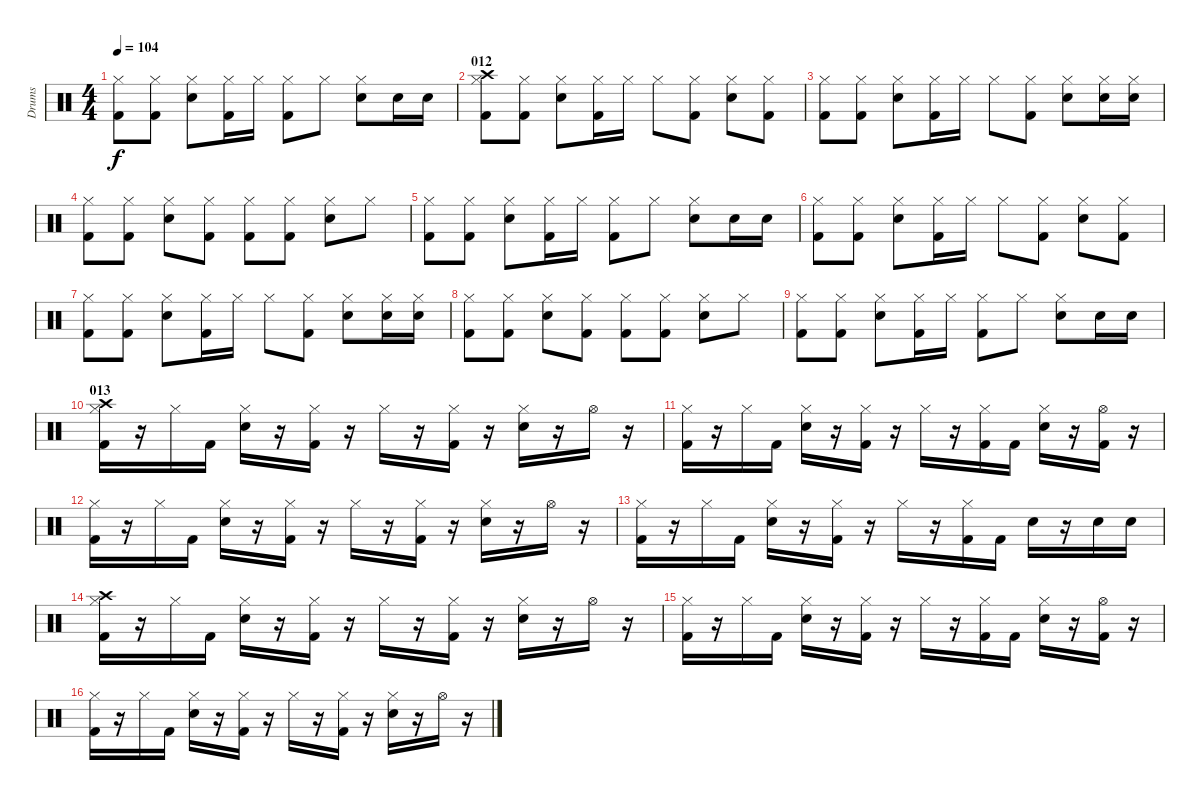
\track ("Drums" "Drums") {instrument percussion}
\staff {score}
\articulation defaults
\ts (4 4)
\tempo 104
\clef neutral
\ks c
("Hi-Hat (closed)" "Kick (hit) 2").8{dy f} ("Hi-Hat (closed)" "Kick (hit) 2").8 ("Hi-Hat (closed)" "Electric Snare (hit)").8 ("Hi-Hat (closed)" "Kick (hit) 2").16 "Hi-Hat (closed)".16 ("Hi-Hat (closed)" "Kick (hit) 2").8 "Hi-Hat (closed)".8 ("Hi-Hat (closed)" "Electric Snare (hit)").8 "Electric Snare (hit)".16 "Electric Snare (hit)".16 |
\section ("" "012")
("Hi-Hat (closed)" "Kick (hit) 2" "Crash high (hit)").8 ("Hi-Hat (closed)" "Kick (hit) 2").8 ("Hi-Hat (closed)" "Electric Snare (hit)").8 ("Hi-Hat (closed)" "Kick (hit) 2").16 "Hi-Hat (closed)".16 "Hi-Hat (closed)".8 ("Hi-Hat (closed)" "Kick (hit) 2").8 ("Hi-Hat (closed)" "Electric Snare (hit)").8 ("Hi-Hat (closed)" "Kick (hit) 2").8 |
("Hi-Hat (closed)" "Kick (hit) 2").8 ("Hi-Hat (closed)" "Kick (hit) 2").8 ("Hi-Hat (closed)" "Electric Snare (hit)").8 ("Hi-Hat (closed)" "Kick (hit) 2").16 "Hi-Hat (closed)".16 "Hi-Hat (closed)".8 ("Hi-Hat (closed)" "Kick (hit) 2").8 ("Hi-Hat (closed)" "Electric Snare (hit)").8 ("Hi-Hat (closed)" "Electric Snare (hit)").16 ("Hi-Hat (closed)" "Electric Snare (hit)").16 |
("Hi-Hat (closed)" "Kick (hit) 2").8 ("Hi-Hat (closed)" "Kick (hit) 2").8 ("Hi-Hat (closed)" "Electric Snare (hit)").8 ("Hi-Hat (closed)" "Kick (hit) 2").8 ("Hi-Hat (closed)" "Kick (hit) 2").8 ("Hi-Hat (closed)" "Kick (hit) 2").8 ("Hi-Hat (closed)" "Electric Snare (hit)").8 "Hi-Hat (closed)".8 |
("Hi-Hat (closed)" "Kick (hit) 2").8 ("Hi-Hat (closed)" "Kick (hit) 2").8 ("Hi-Hat (closed)" "Electric Snare (hit)").8 ("Hi-Hat (closed)" "Kick (hit) 2").16 "Hi-Hat (closed)".16 ("Hi-Hat (closed)" "Kick (hit) 2").8 "Hi-Hat (closed)".8 ("Hi-Hat (closed)" "Electric Snare (hit)").8 "Electric Snare (hit)".16 "Electric Snare (hit)".16 |
("Hi-Hat (closed)" "Kick (hit) 2").8 ("Hi-Hat (closed)" "Kick (hit) 2").8 ("Hi-Hat (closed)" "Electric Snare (hit)").8 ("Hi-Hat (closed)" "Kick (hit) 2").16 "Hi-Hat (closed)".16 "Hi-Hat (closed)".8 ("Hi-Hat (closed)" "Kick (hit) 2").8 ("Hi-Hat (closed)" "Electric Snare (hit)").8 ("Hi-Hat (closed)" "Kick (hit) 2").8 |
("Hi-Hat (closed)" "Kick (hit) 2").8 ("Hi-Hat (closed)" "Kick (hit) 2").8 ("Hi-Hat (closed)" "Electric Snare (hit)").8 ("Hi-Hat (closed)" "Kick (hit) 2").16 "Hi-Hat (closed)".16 "Hi-Hat (closed)".8 ("Hi-Hat (closed)" "Kick (hit) 2").8 ("Hi-Hat (closed)" "Electric Snare (hit)").8 ("Hi-Hat (closed)" "Electric Snare (hit)").16 ("Hi-Hat (closed)" "Electric Snare (hit)").16 |
("Hi-Hat (closed)" "Kick (hit) 2").8 ("Hi-Hat (closed)" "Kick (hit) 2").8 ("Hi-Hat (closed)" "Electric Snare (hit)").8 ("Hi-Hat (closed)" "Kick (hit) 2").8 ("Hi-Hat (closed)" "Kick (hit) 2").8 ("Hi-Hat (closed)" "Kick (hit) 2").8 ("Hi-Hat (closed)" "Electric Snare (hit)").8 "Hi-Hat (closed)".8 |
("Hi-Hat (closed)" "Kick (hit) 2").8 ("Hi-Hat (closed)" "Kick (hit) 2").8 ("Hi-Hat (closed)" "Electric Snare (hit)").8 ("Hi-Hat (closed)" "Kick (hit) 2").16 "Hi-Hat (closed)".16 ("Hi-Hat (closed)" "Kick (hit) 2").8 "Hi-Hat (closed)".8 ("Hi-Hat (closed)" "Electric Snare (hit)").8 "Electric Snare (hit)".16 "Electric Snare (hit)".16 |
\section ("" "013")
("Hi-Hat (closed)" "Kick (hit) 2" "Crash high (hit)").16 r.16 "Hi-Hat (closed)".16 "Kick (hit) 2".16 ("Hi-Hat (closed)" "Electric Snare (hit)").16 r.16 ("Hi-Hat (closed)" "Kick (hit) 2").16 r.16 "Hi-Hat (closed)".16 r.16 ("Hi-Hat (closed)" "Kick (hit) 2").16 r.16 ("Hi-Hat (closed)" "Electric Snare (hit)").16 r.16 "Hi-Hat (open)".16 r.16 |
("Hi-Hat (closed)" "Kick (hit) 2").16 r.16 "Hi-Hat (closed)".16 "Kick (hit) 2".16 ("Hi-Hat (closed)" "Electric Snare (hit)").16 r.16 ("Hi-Hat (closed)" "Kick (hit) 2").16 r.16 "Hi-Hat (closed)".16 r.16 ("Hi-Hat (closed)" "Kick (hit) 2").16 "Kick (hit) 2".16 ("Hi-Hat (closed)" "Electric Snare (hit)").16 r.16 ("Hi-Hat (open)" "Kick (hit) 2").16 r.16 |
("Hi-Hat (closed)" "Kick (hit) 2").16 r.16 "Hi-Hat (closed)".16 "Kick (hit) 2".16 ("Hi-Hat (closed)" "Electric Snare (hit)").16 r.16 ("Hi-Hat (closed)" "Kick (hit) 2").16 r.16 "Hi-Hat (closed)".16 r.16 ("Hi-Hat (closed)" "Kick (hit) 2").16 r.16 ("Hi-Hat (closed)" "Electric Snare (hit)").16 r.16 "Hi-Hat (open)".16 r.16 |
("Hi-Hat (closed)" "Kick (hit) 2").16 r.16 "Hi-Hat (closed)".16 "Kick (hit) 2".16 ("Hi-Hat (closed)" "Electric Snare (hit)").16 r.16 ("Hi-Hat (closed)" "Kick (hit) 2").16 r.16 "Hi-Hat (closed)".16 r.16 ("Hi-Hat (closed)" "Kick (hit) 2").16 "Kick (hit) 2".16 "Electric Snare (hit)".16 r.16 "Electric Snare (hit)".16 "Electric Snare (hit)".16 |
("Hi-Hat (closed)" "Kick (hit) 2" "Crash high (hit)").16 r.16 "Hi-Hat (closed)".16 "Kick (hit) 2".16 ("Hi-Hat (closed)" "Electric Snare (hit)").16 r.16 ("Hi-Hat (closed)" "Kick (hit) 2").16 r.16 "Hi-Hat (closed)".16 r.16 ("Hi-Hat (closed)" "Kick (hit) 2").16 r.16 ("Hi-Hat (closed)" "Electric Snare (hit)").16 r.16 "Hi-Hat (open)".16 r.16 |
("Hi-Hat (closed)" "Kick (hit) 2").16 r.16 "Hi-Hat (closed)".16 "Kick (hit) 2".16 ("Hi-Hat (closed)" "Electric Snare (hit)").16 r.16 ("Hi-Hat (closed)" "Kick (hit) 2").16 r.16 "Hi-Hat (closed)".16 r.16 ("Hi-Hat (closed)" "Kick (hit) 2").16 "Kick (hit) 2".16 ("Hi-Hat (closed)" "Electric Snare (hit)").16 r.16 ("Hi-Hat (open)" "Kick (hit) 2").16 r.16 |
("Hi-Hat (closed)" "Kick (hit) 2").16 r.16 "Hi-Hat (closed)".16 "Kick (hit) 2".16 ("Hi-Hat (closed)" "Electric Snare (hit)").16 r.16 ("Hi-Hat (closed)" "Kick (hit) 2").16 r.16 "Hi-Hat (closed)".16 r.16 ("Hi-Hat (closed)" "Kick (hit) 2").16 r.16 ("Hi-Hat (closed)" "Electric Snare (hit)").16 r.16 "Hi-Hat (open)".16 r.16
